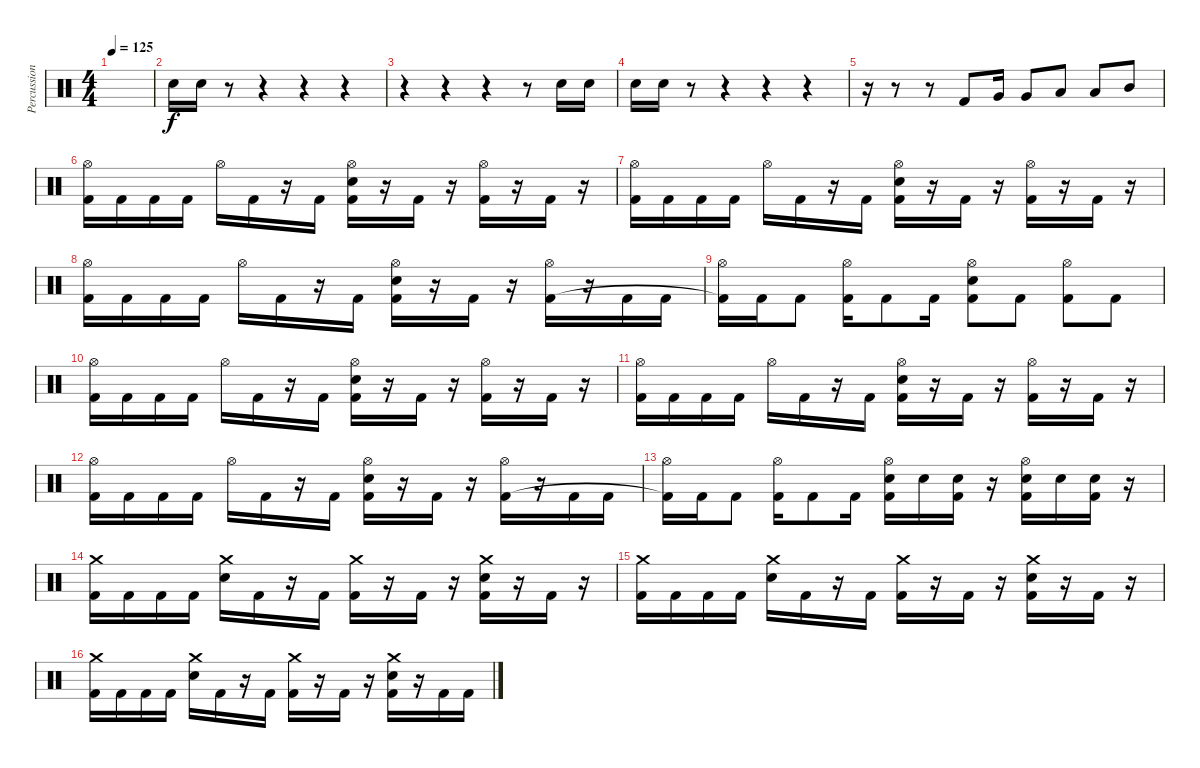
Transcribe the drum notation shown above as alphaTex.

\track ("Percussion" "Percussion") {instrument percussion}
\staff {score}
\articulation defaults
\ts (4 4)
\tempo 125
\clef neutral
\ks c
|
"Electric Snare (hit)".16 "Electric Snare (hit)".16 r.8 r.4 r.4 r.4 |
r.4 r.4 r.4 r.8 "Electric Snare (hit)".16 "Electric Snare (hit)".16 |
"Electric Snare (hit)".16 "Electric Snare (hit)".16 r.8 r.4 r.4 r.4 |
r.16 r.8 r.8 "Kick (hit) 2".8 "Very Low Tom (hit)".16 "Very Low Tom (hit)".8 "Low Tom (hit)".8 "Low Tom (hit)".8 "Mid Tom (hit)".8 |
("Hi-Hat (open)" "Kick (hit) 2").16 "Kick (hit) 2".16 "Kick (hit) 2".16 "Kick (hit) 2".16 "Hi-Hat (open)".16 "Kick (hit) 2".16 r.16 "Kick (hit) 2".16 ("Hi-Hat (open)" "Electric Snare (hit)" "Kick (hit) 2").16 r.16 "Kick (hit) 2".16 r.16 ("Hi-Hat (open)" "Kick (hit) 2").16 r.16 "Kick (hit) 2".16 r.16 |
("Hi-Hat (open)" "Kick (hit) 2").16 "Kick (hit) 2".16 "Kick (hit) 2".16 "Kick (hit) 2".16 "Hi-Hat (open)".16 "Kick (hit) 2".16 r.16 "Kick (hit) 2".16 ("Hi-Hat (open)" "Electric Snare (hit)" "Kick (hit) 2").16 r.16 "Kick (hit) 2".16 r.16 ("Hi-Hat (open)" "Kick (hit) 2").16 r.16 "Kick (hit) 2".16 r.16 |
("Hi-Hat (open)" "Kick (hit) 2").16 "Kick (hit) 2".16 "Kick (hit) 2".16 "Kick (hit) 2".16 "Hi-Hat (open)".16 "Kick (hit) 2".16 r.16 "Kick (hit) 2".16 ("Hi-Hat (open)" "Electric Snare (hit)" "Kick (hit) 2").16 r.16 "Kick (hit) 2".16 r.16 ("Hi-Hat (open)" "Kick (hit) 2").16 r.16 "Kick (hit) 2".16 "Kick (hit) 2".16 |
("Hi-Hat (open)" "Kick (hit) 2"{t}).16 "Kick (hit) 2".16 "Kick (hit) 2".8 ("Hi-Hat (open)" "Kick (hit) 2").16 "Kick (hit) 2".8 "Kick (hit) 2".16 ("Hi-Hat (open)" "Electric Snare (hit)" "Kick (hit) 2").8 "Kick (hit) 2".8 ("Hi-Hat (open)" "Kick (hit) 2").8 "Kick (hit) 2".8 |
("Hi-Hat (open)" "Kick (hit) 2").16 "Kick (hit) 2".16 "Kick (hit) 2".16 "Kick (hit) 2".16 "Hi-Hat (open)".16 "Kick (hit) 2".16 r.16 "Kick (hit) 2".16 ("Hi-Hat (open)" "Electric Snare (hit)" "Kick (hit) 2").16 r.16 "Kick (hit) 2".16 r.16 ("Hi-Hat (open)" "Kick (hit) 2").16 r.16 "Kick (hit) 2".16 r.16 |
("Hi-Hat (open)" "Kick (hit) 2").16 "Kick (hit) 2".16 "Kick (hit) 2".16 "Kick (hit) 2".16 "Hi-Hat (open)".16 "Kick (hit) 2".16 r.16 "Kick (hit) 2".16 ("Hi-Hat (open)" "Electric Snare (hit)" "Kick (hit) 2").16 r.16 "Kick (hit) 2".16 r.16 ("Hi-Hat (open)" "Kick (hit) 2").16 r.16 "Kick (hit) 2".16 r.16 |
("Hi-Hat (open)" "Kick (hit) 2").16 "Kick (hit) 2".16 "Kick (hit) 2".16 "Kick (hit) 2".16 "Hi-Hat (open)".16 "Kick (hit) 2".16 r.16 "Kick (hit) 2".16 ("Hi-Hat (open)" "Electric Snare (hit)" "Kick (hit) 2").16 r.16 "Kick (hit) 2".16 r.16 ("Hi-Hat (open)" "Kick (hit) 2").16 r.16 "Kick (hit) 2".16 "Kick (hit) 2".16 |
("Hi-Hat (open)" "Kick (hit) 2"{t}).16 "Kick (hit) 2".16 "Kick (hit) 2".8 ("Hi-Hat (open)" "Kick (hit) 2").16 "Kick (hit) 2".8 "Kick (hit) 2".16 ("Hi-Hat (open)" "Electric Snare (hit)" "Kick (hit) 2").16 "Electric Snare (hit)".16 ("Electric Snare (hit)" "Kick (hit) 2").16 r.16 ("Hi-Hat (open)" "Electric Snare (hit)" "Kick (hit) 2").16 "Electric Snare (hit)".16 ("Electric Snare (hit)" "Kick (hit) 2").16 r.16 |
("Crash medium (hit)" "Kick (hit) 2").16 "Kick (hit) 2".16 "Kick (hit) 2".16 "Kick (hit) 2".16 ("Crash medium (hit)" "Electric Snare (hit)").16 "Kick (hit) 2".16 r.16 "Kick (hit) 2".16 ("Crash medium (hit)" "Kick (hit) 2").16 r.16 "Kick (hit) 2".16 r.16 ("Crash medium (hit)" "Electric Snare (hit)" "Kick (hit) 2").16 r.16 "Kick (hit) 2".16 r.16 |
("Crash medium (hit)" "Kick (hit) 2").16 "Kick (hit) 2".16 "Kick (hit) 2".16 "Kick (hit) 2".16 ("Crash medium (hit)" "Electric Snare (hit)").16 "Kick (hit) 2".16 r.16 "Kick (hit) 2".16 ("Crash medium (hit)" "Kick (hit) 2").16 r.16 "Kick (hit) 2".16 r.16 ("Crash medium (hit)" "Electric Snare (hit)" "Kick (hit) 2").16 r.16 "Kick (hit) 2".16 r.16 |
("Crash medium (hit)" "Kick (hit) 2").16 "Kick (hit) 2".16 "Kick (hit) 2".16 "Kick (hit) 2".16 ("Crash medium (hit)" "Electric Snare (hit)").16 "Kick (hit) 2".16 r.16 "Kick (hit) 2".16 ("Crash medium (hit)" "Kick (hit) 2").16 r.16 "Kick (hit) 2".16 r.16 ("Crash medium (hit)" "Electric Snare (hit)" "Kick (hit) 2").16 r.16 "Kick (hit) 2".16 "Kick (hit) 2".16
